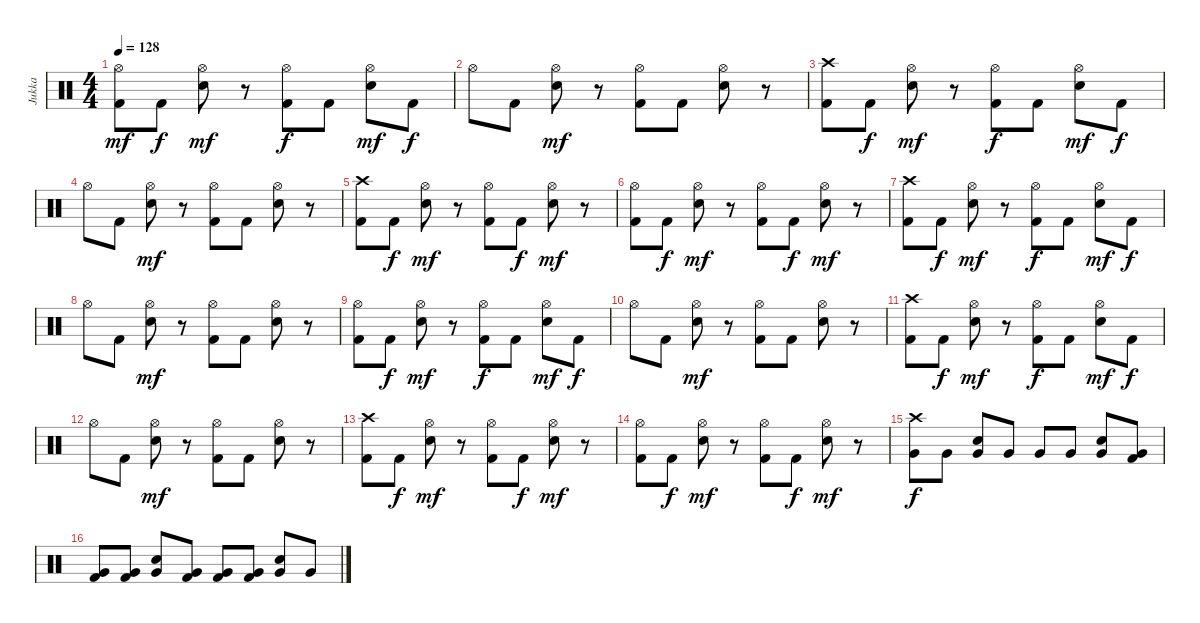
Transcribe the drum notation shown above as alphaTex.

\track ("Jukka" "Jukka") {instrument percussion}
\staff {score}
\articulation defaults
\ts (4 4)
\tempo 128
\clef neutral
\ks c
("Kick (hit) 2" "Hi-Hat (open)").8{dy mf} "Kick (hit) 2".8{dy f} ("Electric Snare (hit)" "Hi-Hat (open)").8{dy mf} r.8 ("Kick (hit) 2" "Hi-Hat (open)").8{dy f} "Kick (hit) 2".8 ("Electric Snare (hit)" "Hi-Hat (open)").8{dy mf} "Kick (hit) 2".8{dy f} |
"Hi-Hat (open)".8 "Kick (hit) 2".8 ("Electric Snare (hit)" "Hi-Hat (open)").8{dy mf} r.8 ("Kick (hit) 2" "Hi-Hat (open)").8 "Kick (hit) 2".8 ("Electric Snare (hit)" "Hi-Hat (open)").8 r.8 |
("Kick (hit) 2" "Crash high (hit)").8 "Kick (hit) 2".8{dy f} ("Electric Snare (hit)" "Hi-Hat (open)").8{dy mf} r.8 ("Kick (hit) 2" "Hi-Hat (open)").8{dy f} "Kick (hit) 2".8 ("Electric Snare (hit)" "Hi-Hat (open)").8{dy mf} "Kick (hit) 2".8{dy f} |
"Hi-Hat (open)".8 "Kick (hit) 2".8 ("Electric Snare (hit)" "Hi-Hat (open)").8{dy mf} r.8 ("Kick (hit) 2" "Hi-Hat (open)").8 "Kick (hit) 2".8 ("Electric Snare (hit)" "Hi-Hat (open)").8 r.8 |
("Kick (hit) 2" "Crash high (hit)").8 "Kick (hit) 2".8{dy f} ("Electric Snare (hit)" "Hi-Hat (open)").8{dy mf} r.8 ("Kick (hit) 2" "Hi-Hat (open)").8 "Kick (hit) 2".8{dy f} ("Electric Snare (hit)" "Hi-Hat (open)").8{dy mf} r.8 |
("Kick (hit) 2" "Hi-Hat (open)").8 "Kick (hit) 2".8{dy f} ("Electric Snare (hit)" "Hi-Hat (open)").8{dy mf} r.8 ("Kick (hit) 2" "Hi-Hat (open)").8 "Kick (hit) 2".8{dy f} ("Electric Snare (hit)" "Hi-Hat (open)").8{dy mf} r.8 |
("Kick (hit) 2" "Crash high (hit)").8 "Kick (hit) 2".8{dy f} ("Electric Snare (hit)" "Hi-Hat (open)").8{dy mf} r.8 ("Kick (hit) 2" "Hi-Hat (open)").8{dy f} "Kick (hit) 2".8 ("Electric Snare (hit)" "Hi-Hat (open)").8{dy mf} "Kick (hit) 2".8{dy f} |
"Hi-Hat (open)".8 "Kick (hit) 2".8 ("Electric Snare (hit)" "Hi-Hat (open)").8{dy mf} r.8 ("Kick (hit) 2" "Hi-Hat (open)").8 "Kick (hit) 2".8 ("Electric Snare (hit)" "Hi-Hat (open)").8 r.8 |
("Kick (hit) 2" "Hi-Hat (open)").8 "Kick (hit) 2".8{dy f} ("Electric Snare (hit)" "Hi-Hat (open)").8{dy mf} r.8 ("Kick (hit) 2" "Hi-Hat (open)").8{dy f} "Kick (hit) 2".8 ("Electric Snare (hit)" "Hi-Hat (open)").8{dy mf} "Kick (hit) 2".8{dy f} |
"Hi-Hat (open)".8 "Kick (hit) 2".8 ("Electric Snare (hit)" "Hi-Hat (open)").8{dy mf} r.8 ("Kick (hit) 2" "Hi-Hat (open)").8 "Kick (hit) 2".8 ("Electric Snare (hit)" "Hi-Hat (open)").8 r.8 |
("Kick (hit) 2" "Crash high (hit)").8 "Kick (hit) 2".8{dy f} ("Electric Snare (hit)" "Hi-Hat (open)").8{dy mf} r.8 ("Kick (hit) 2" "Hi-Hat (open)").8{dy f} "Kick (hit) 2".8 ("Electric Snare (hit)" "Hi-Hat (open)").8{dy mf} "Kick (hit) 2".8{dy f} |
"Hi-Hat (open)".8 "Kick (hit) 2".8 ("Electric Snare (hit)" "Hi-Hat (open)").8{dy mf} r.8 ("Kick (hit) 2" "Hi-Hat (open)").8 "Kick (hit) 2".8 ("Electric Snare (hit)" "Hi-Hat (open)").8 r.8 |
("Kick (hit) 2" "Crash high (hit)").8 "Kick (hit) 2".8{dy f} ("Electric Snare (hit)" "Hi-Hat (open)").8{dy mf} r.8 ("Kick (hit) 2" "Hi-Hat (open)").8 "Kick (hit) 2".8{dy f} ("Electric Snare (hit)" "Hi-Hat (open)").8{dy mf} r.8 |
("Kick (hit) 2" "Hi-Hat (open)").8 "Kick (hit) 2".8{dy f} ("Electric Snare (hit)" "Hi-Hat (open)").8{dy mf} r.8 ("Kick (hit) 2" "Hi-Hat (open)").8 "Kick (hit) 2".8{dy f} ("Electric Snare (hit)" "Hi-Hat (open)").8{dy mf} r.8 |
("Crash high (hit)" "Very Low Tom (hit)").8{dy f} "Very Low Tom (hit)".8 ("Electric Snare (hit)" "Very Low Tom (hit)").8 "Very Low Tom (hit)".8 "Very Low Tom (hit)".8 "Very Low Tom (hit)".8 ("Electric Snare (hit)" "Very Low Tom (hit)").8 ("Very Low Tom (hit)" "Kick (hit) 2").8 |
("Very Low Tom (hit)" "Kick (hit) 2").8 ("Very Low Tom (hit)" "Kick (hit) 2").8 ("Electric Snare (hit)" "Very Low Tom (hit)").8 ("Very Low Tom (hit)" "Kick (hit) 2").8 ("Very Low Tom (hit)" "Kick (hit) 2").8 ("Very Low Tom (hit)" "Kick (hit) 2").8 ("Electric Snare (hit)" "Very Low Tom (hit)").8 "Very Low Tom (hit)".8
